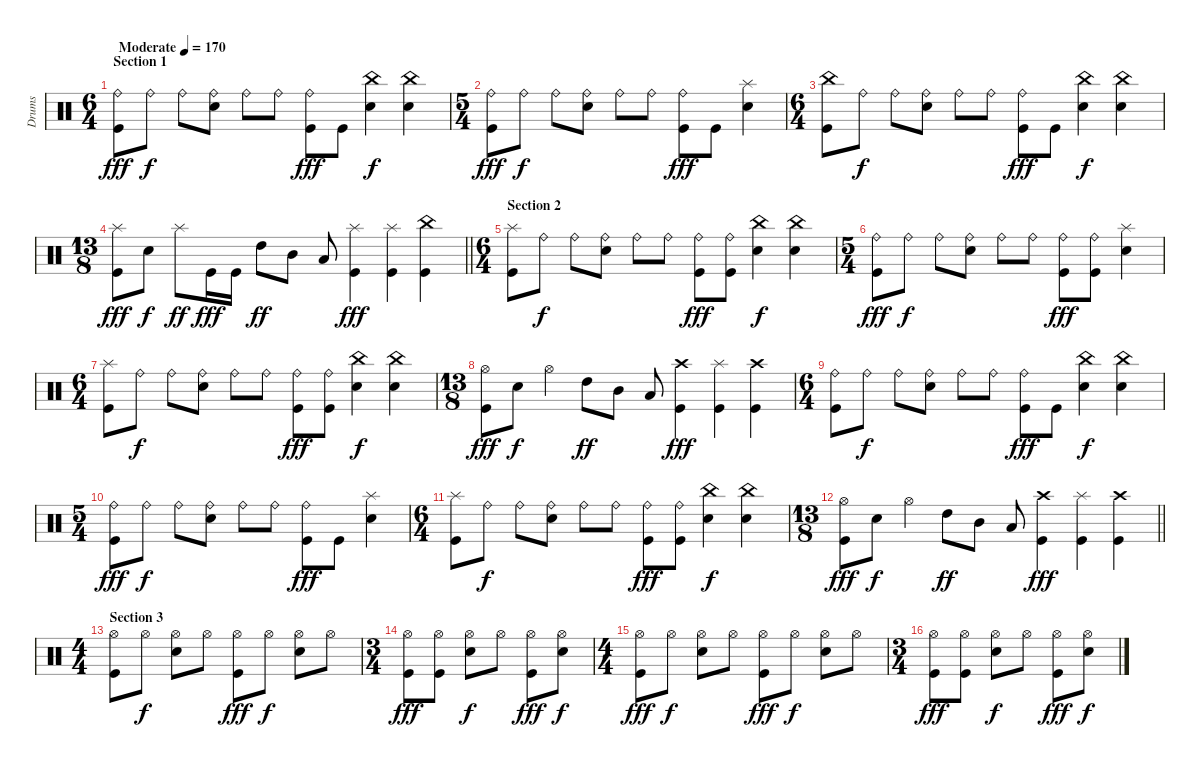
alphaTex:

\track ("Drums" "Drums") {instrument percussion}
\staff {score}
\articulation defaults
\ts (6 4)
\section ("" "Section 1")
\tempo (170 "Moderate")
\clef neutral
\ks c
("Ride (bell)" "Kick (hit)").8{dy fff} "Ride (bell)".8{dy f} "Ride (bell)".8 ("Ride (bell)" "Snare (hit) 2").8 "Ride (bell)".8 "Ride (bell)".8 ("Ride (bell)" "Kick (hit)").8{dy fff} "Kick (hit)".8 ("China (hit)" "Snare (hit) 2").4{dy f} ("China (hit)" "Snare (hit) 2").4 |
\ts (5 4)
("Ride (bell)" "Kick (hit)").8{dy fff} "Ride (bell)".8{dy f} "Ride (bell)".8 ("Ride (bell)" "Snare (hit) 2").8 "Ride (bell)".8 "Ride (bell)".8 ("Ride (bell)" "Kick (hit)").8{dy fff} "Kick (hit)".8 ("Splash (hit)" "Snare (hit) 2").4 |
\ts (6 4)
("China (hit)" "Kick (hit)").8 "Ride (bell)".8{dy f} "Ride (bell)".8 ("Ride (bell)" "Snare (hit) 2").8 "Ride (bell)".8 "Ride (bell)".8 ("Ride (bell)" "Kick (hit)").8{dy fff} "Kick (hit)".8 ("China (hit)" "Snare (hit) 2").4{dy f} ("China (hit)" "Snare (hit) 2").4 |
\ts (13 8)
\barLineRight lightlight
("Splash (hit)" "Kick (hit)").8{dy fff} "Snare (hit) 2".8{dy f} "Splash (hit)".8{dy ff} "Kick (hit)".16{dy fff} "Kick (hit)".16 "High Tom (hit)".8{dy ff} "Mid Tom (hit)".8 "Low Tom (hit)".8 ("Splash (hit)" "Kick (hit)").4{dy fff} ("Splash (hit)" "Kick (hit)").4 ("China (hit)" "Kick (hit)").4 |
\ts (6 4)
\section ("" "Section 2")
("Splash (hit)" "Kick (hit)").8 "Ride (bell)".8{dy f} "Ride (bell)".8 ("Ride (bell)" "Snare (hit) 2").8 "Ride (bell)".8 "Ride (bell)".8 ("Ride (bell)" "Kick (hit)").8{dy fff} ("Ride (bell)" "Kick (hit)").8 ("China (hit)" "Snare (hit) 2").4{dy f} ("China (hit)" "Snare (hit) 2").4 |
\ts (5 4)
("Ride (bell)" "Kick (hit)").8{dy fff} "Ride (bell)".8{dy f} "Ride (bell)".8 ("Ride (bell)" "Snare (hit) 2").8 "Ride (bell)".8 "Ride (bell)".8 ("Ride (bell)" "Kick (hit)").8{dy fff} ("Ride (bell)" "Kick (hit)").8 ("Splash (hit)" "Snare (hit) 2").4 |
\ts (6 4)
("Splash (hit)" "Kick (hit)").8 "Ride (bell)".8{dy f} "Ride (bell)".8 ("Ride (bell)" "Snare (hit) 2").8 "Ride (bell)".8 "Ride (bell)".8 ("Ride (bell)" "Kick (hit)").8{dy fff} ("Ride (bell)" "Kick (hit)").8 ("China (hit)" "Snare (hit) 2").4{dy f} ("China (hit)" "Snare (hit) 2").4 |
\ts (13 8)
("Hi-Hat (open)" "Kick (hit)").8{dy fff} "Snare (hit) 2".8{dy f} "Hi-Hat (open)".4 "High Tom (hit)".8{dy ff} "Mid Tom (hit)".8 "Low Tom (hit)".8 ("Crash high (hit)" "Kick (hit)").4{dy fff} ("Splash (hit)" "Kick (hit)").4 ("Crash high (hit)" "Kick (hit)").4 |
\ts (6 4)
("Ride (bell)" "Kick (hit)").8 "Ride (bell)".8{dy f} "Ride (bell)".8 ("Ride (bell)" "Snare (hit) 2").8 "Ride (bell)".8 "Ride (bell)".8 ("Ride (bell)" "Kick (hit)").8{dy fff} "Kick (hit)".8 ("China (hit)" "Snare (hit) 2").4{dy f} ("China (hit)" "Snare (hit) 2").4 |
\ts (5 4)
("Ride (bell)" "Kick (hit)").8{dy fff} "Ride (bell)".8{dy f} "Ride (bell)".8 ("Ride (bell)" "Snare (hit) 2").8 "Ride (bell)".8 "Ride (bell)".8 ("Ride (bell)" "Kick (hit)").8{dy fff} "Kick (hit)".8 ("Splash (hit)" "Snare (hit) 2").4 |
\ts (6 4)
("Splash (hit)" "Kick (hit)").8 "Ride (bell)".8{dy f} "Ride (bell)".8 ("Ride (bell)" "Snare (hit) 2").8 "Ride (bell)".8 "Ride (bell)".8 ("Ride (bell)" "Kick (hit)").8{dy fff} ("Ride (bell)" "Kick (hit)").8 ("China (hit)" "Snare (hit) 2").4{dy f} ("China (hit)" "Snare (hit) 2").4 |
\ts (13 8)
\barLineRight lightlight
("Hi-Hat (open)" "Kick (hit)").8{dy fff} "Snare (hit) 2".8{dy f} "Hi-Hat (open)".4 "High Tom (hit)".8{dy ff} "Mid Tom (hit)".8 "Low Tom (hit)".8 ("Crash high (hit)" "Kick (hit)").4{dy fff} ("Splash (hit)" "Kick (hit)").4 ("Crash high (hit)" "Kick (hit)").4 |
\ts (4 4)
\section ("" "Section 3")
("Hi-Hat (open)" "Kick (hit)").8 "Hi-Hat (open)".8{dy f} ("Hi-Hat (open)" "Snare (hit) 2").8 "Hi-Hat (open)".8 ("Hi-Hat (open)" "Kick (hit)").8{dy fff} "Hi-Hat (open)".8{dy f} ("Hi-Hat (open)" "Snare (hit) 2").8 "Hi-Hat (open)".8 |
\ts (3 4)
("Hi-Hat (open)" "Kick (hit)").8{dy fff} ("Hi-Hat (open)" "Kick (hit)").8 ("Hi-Hat (open)" "Snare (hit) 2").8{dy f} "Hi-Hat (open)".8 ("Hi-Hat (open)" "Kick (hit)").8{dy fff} ("Hi-Hat (open)" "Snare (hit) 2").8{dy f} |
\ts (4 4)
("Hi-Hat (open)" "Kick (hit)").8{dy fff} "Hi-Hat (open)".8{dy f} ("Hi-Hat (open)" "Snare (hit) 2").8 "Hi-Hat (open)".8 ("Hi-Hat (open)" "Kick (hit)").8{dy fff} "Hi-Hat (open)".8{dy f} ("Hi-Hat (open)" "Snare (hit) 2").8 "Hi-Hat (open)".8 |
\ts (3 4)
("Hi-Hat (open)" "Kick (hit)").8{dy fff} ("Hi-Hat (open)" "Kick (hit)").8 ("Hi-Hat (open)" "Snare (hit) 2").8{dy f} "Hi-Hat (open)".8 ("Hi-Hat (open)" "Kick (hit)").8{dy fff} ("Hi-Hat (open)" "Snare (hit) 2").8{dy f}
